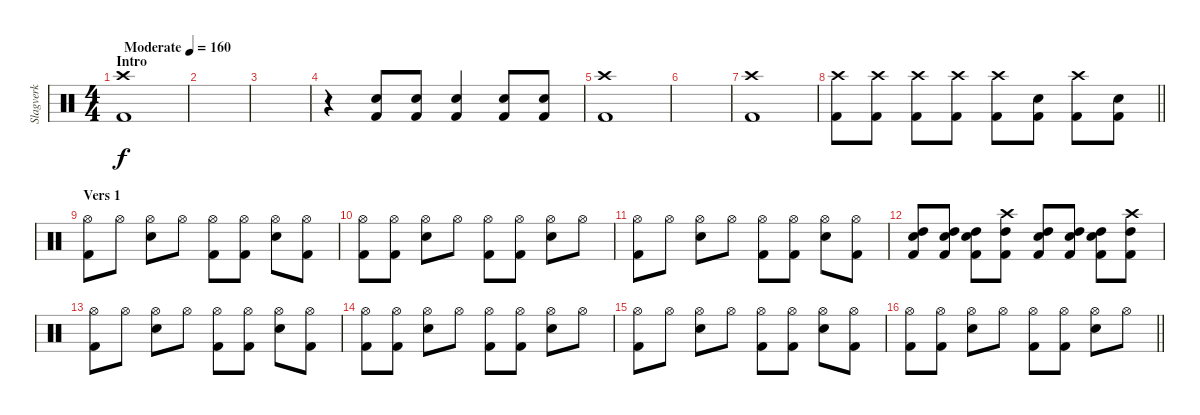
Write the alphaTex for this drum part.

\track ("Slagverk" "Slagverk") {instrument percussion}
\staff {score}
\articulation defaults
\ts (4 4)
\section ("" "Intro")
\tempo (160 "Moderate")
\clef neutral
\ks c
("Crash high (hit)" "Kick (hit) 2").1{dy f} |
|
|
r.4 ("Snare (hit) 2" "Kick (hit) 2").8 ("Snare (hit) 2" "Kick (hit) 2").8 ("Snare (hit) 2" "Kick (hit) 2").4 ("Snare (hit) 2" "Kick (hit) 2").8 ("Snare (hit) 2" "Kick (hit) 2").8 |
("Crash high (hit)" "Kick (hit) 2").1 |
|
("Crash high (hit)" "Kick (hit) 2").1 |
\barLineRight lightlight
("Crash high (hit)" "Kick (hit) 2").8 ("Crash high (hit)" "Kick (hit) 2").8 ("Crash high (hit)" "Kick (hit) 2").8 ("Crash high (hit)" "Kick (hit) 2").8 ("Crash high (hit)" "Kick (hit) 2").8 ("Snare (hit) 2" "Kick (hit) 2").8 ("Crash high (hit)" "Kick (hit) 2").8 ("Snare (hit) 2" "Kick (hit) 2").8 |
\section ("" "Vers 1")
("Hi-Hat (open)" "Kick (hit) 2").8 "Hi-Hat (open)".8 ("Snare (hit) 2" "Hi-Hat (open)").8 "Hi-Hat (open)".8 ("Hi-Hat (open)" "Kick (hit) 2").8 ("Hi-Hat (open)" "Kick (hit) 2").8 ("Snare (hit) 2" "Hi-Hat (open)").8 ("Hi-Hat (open)" "Kick (hit) 2").8 |
("Hi-Hat (open)" "Kick (hit) 2").8 ("Hi-Hat (open)" "Kick (hit) 2").8 ("Snare (hit) 2" "Hi-Hat (open)").8 "Hi-Hat (open)".8 ("Hi-Hat (open)" "Kick (hit) 2").8 ("Hi-Hat (open)" "Kick (hit) 2").8 ("Snare (hit) 2" "Hi-Hat (open)").8 "Hi-Hat (open)".8 |
("Hi-Hat (open)" "Kick (hit) 2").8 "Hi-Hat (open)".8 ("Snare (hit) 2" "Hi-Hat (open)").8 "Hi-Hat (open)".8 ("Hi-Hat (open)" "Kick (hit) 2").8 ("Hi-Hat (open)" "Kick (hit) 2").8 ("Snare (hit) 2" "Hi-Hat (open)").8 ("Hi-Hat (open)" "Kick (hit) 2").8 |
("Snare (hit) 2" "High Tom (hit)" "Kick (hit) 2").8 ("Snare (hit) 2" "High Tom (hit)" "Kick (hit) 2").8 ("Snare (hit) 2" "High Tom (hit)" "Kick (hit) 2").8 ("Crash high (hit)" "High Tom (hit)" "Kick (hit) 2").8 ("Snare (hit) 2" "High Tom (hit)" "Kick (hit) 2").8 ("Snare (hit) 2" "High Tom (hit)" "Kick (hit) 2").8 ("Snare (hit) 2" "High Tom (hit)" "Kick (hit) 2").8 ("Crash high (hit)" "High Tom (hit)" "Kick (hit) 2").8 |
("Hi-Hat (open)" "Kick (hit) 2").8 "Hi-Hat (open)".8 ("Snare (hit) 2" "Hi-Hat (open)").8 "Hi-Hat (open)".8 ("Hi-Hat (open)" "Kick (hit) 2").8 ("Hi-Hat (open)" "Kick (hit) 2").8 ("Snare (hit) 2" "Hi-Hat (open)").8 ("Hi-Hat (open)" "Kick (hit) 2").8 |
("Hi-Hat (open)" "Kick (hit) 2").8 ("Hi-Hat (open)" "Kick (hit) 2").8 ("Snare (hit) 2" "Hi-Hat (open)").8 "Hi-Hat (open)".8 ("Hi-Hat (open)" "Kick (hit) 2").8 ("Hi-Hat (open)" "Kick (hit) 2").8 ("Snare (hit) 2" "Hi-Hat (open)").8 "Hi-Hat (open)".8 |
("Hi-Hat (open)" "Kick (hit) 2").8 "Hi-Hat (open)".8 ("Snare (hit) 2" "Hi-Hat (open)").8 "Hi-Hat (open)".8 ("Hi-Hat (open)" "Kick (hit) 2").8 ("Hi-Hat (open)" "Kick (hit) 2").8 ("Snare (hit) 2" "Hi-Hat (open)").8 ("Hi-Hat (open)" "Kick (hit) 2").8 |
\barLineRight lightlight
("Hi-Hat (open)" "Kick (hit) 2").8 ("Hi-Hat (open)" "Kick (hit) 2").8 ("Snare (hit) 2" "Hi-Hat (open)").8 "Hi-Hat (open)".8 ("Hi-Hat (open)" "Kick (hit) 2").8 ("Hi-Hat (open)" "Kick (hit) 2").8 ("Snare (hit) 2" "Hi-Hat (open)").8 "Hi-Hat (open)".8
